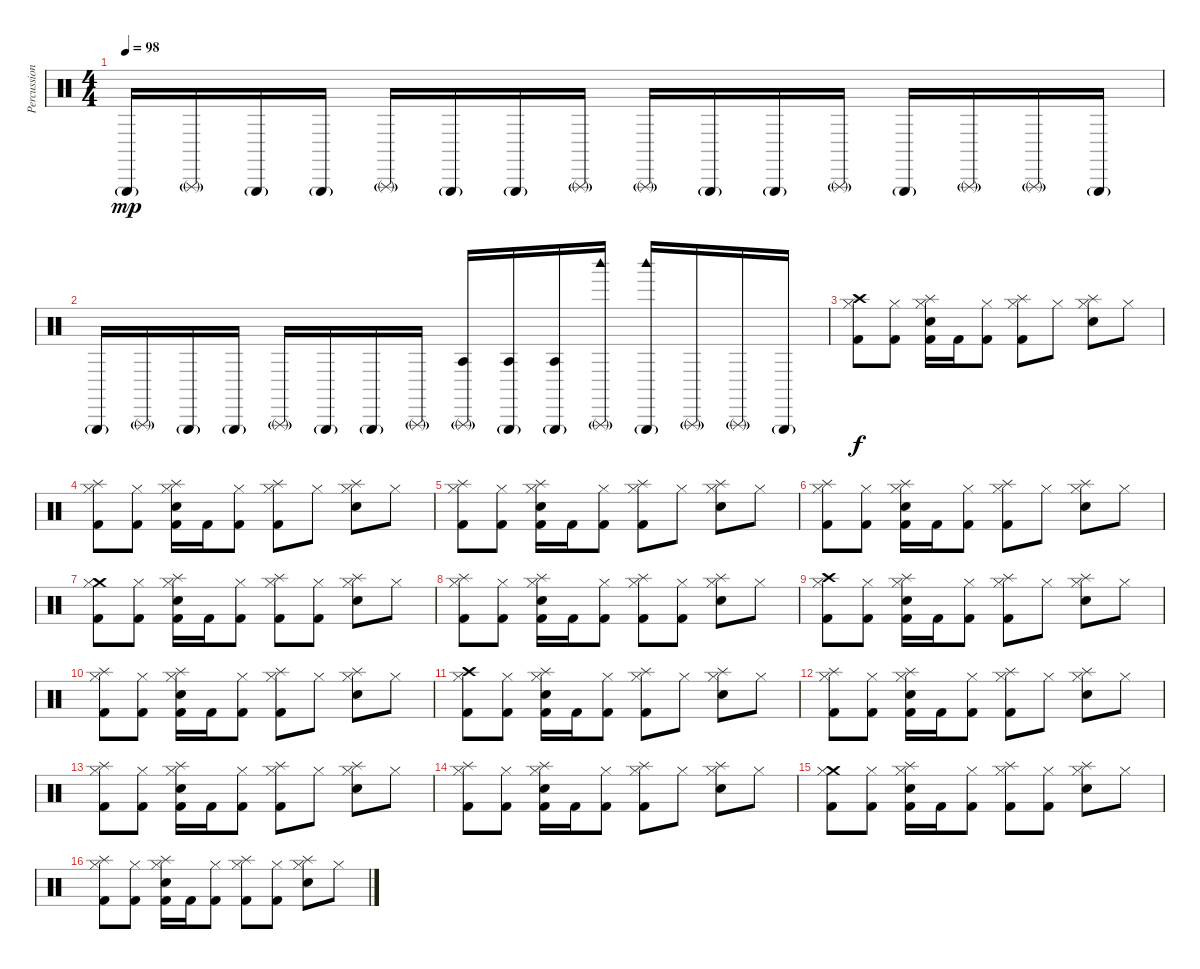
\track ("Percussion" "Percussion") {instrument percussion}
\staff {score}
\articulation defaults
\ts (4 4)
\tempo 98
\clef neutral
\ks c "Triangle (hit)"{g}.16{dy mp} "Triangle (rnute)"{g}.16 "Triangle (hit)"{g}.16 "Triangle (hit)"{g}.16 "Triangle (rnute)"{g}.16 "Triangle (hit)"{g}.16 "Triangle (hit)"{g}.16 "Triangle (rnute)"{g}.16 "Triangle (rnute)"{g}.16 "Triangle (hit)"{g}.16 "Triangle (hit)"{g}.16 "Triangle (rnute)"{g}.16 "Triangle (hit)"{g}.16 "Triangle (rnute)"{g}.16 "Triangle (rnute)"{g}.16 "Triangle (hit)"{g}.16
|
"Triangle (hit)"{g}.16 "Triangle (rnute)"{g}.16 "Triangle (hit)"{g}.16 "Triangle (hit)"{g}.16 "Triangle (rnute)"{g}.16 "Triangle (hit)"{g}.16 "Triangle (hit)"{g}.16 "Triangle (rnute)"{g}.16 ("Triangle (rnute)"{g} "Agogo tow (hit)").16 ("Triangle (hit)"{g} "Agogo tow (hit)").16 ("Triangle (hit)"{g} "Agogo tow (hit)").16 ("Triangle (rnute)"{g} "Woodblock high (hit)").16 ("Triangle (hit)"{g} "Woodblock high (hit)").16 "Triangle (rnute)"{g}.16 "Triangle (rnute)"{g}.16 "Triangle (hit)"{g}.16 |
("Crash high (hit)" "Hi-Hat (closed)" "Kick (hit) 2").8{dy f} ("Hi-Hat (closed)" "Kick (hit) 2").8 ("Splash (hit)" "Hi-Hat (closed)" "Electric Snare (hit)" "Kick (hit) 2").16 "Kick (hit) 2".16 ("Hi-Hat (closed)" "Kick (hit) 2").8 ("Splash (hit)" "Hi-Hat (closed)" "Kick (hit) 2").8 "Hi-Hat (closed)".8 ("Splash (hit)" "Hi-Hat (closed)" "Electric Snare (hit)").8 "Hi-Hat (closed)".8 |
("Splash (hit)" "Hi-Hat (closed)" "Kick (hit) 2").8 ("Hi-Hat (closed)" "Kick (hit) 2").8 ("Splash (hit)" "Hi-Hat (closed)" "Electric Snare (hit)" "Kick (hit) 2").16 "Kick (hit) 2".16 ("Hi-Hat (closed)" "Kick (hit) 2").8 ("Splash (hit)" "Hi-Hat (closed)" "Kick (hit) 2").8 "Hi-Hat (closed)".8 ("Splash (hit)" "Hi-Hat (closed)" "Electric Snare (hit)").8 "Hi-Hat (closed)".8 |
("Splash (hit)" "Hi-Hat (closed)" "Kick (hit) 2").8 ("Hi-Hat (closed)" "Kick (hit) 2").8 ("Splash (hit)" "Hi-Hat (closed)" "Electric Snare (hit)" "Kick (hit) 2").16 "Kick (hit) 2".16 ("Hi-Hat (closed)" "Kick (hit) 2").8 ("Splash (hit)" "Hi-Hat (closed)" "Kick (hit) 2").8 "Hi-Hat (closed)".8 ("Splash (hit)" "Hi-Hat (closed)" "Electric Snare (hit)").8 "Hi-Hat (closed)".8 |
("Splash (hit)" "Hi-Hat (closed)" "Kick (hit) 2").8 ("Hi-Hat (closed)" "Kick (hit) 2").8 ("Splash (hit)" "Hi-Hat (closed)" "Electric Snare (hit)" "Kick (hit) 2").16 "Kick (hit) 2".16 ("Hi-Hat (closed)" "Kick (hit) 2").8 ("Splash (hit)" "Hi-Hat (closed)" "Kick (hit) 2").8 "Hi-Hat (closed)".8 ("Splash (hit)" "Hi-Hat (closed)" "Electric Snare (hit)").8 "Hi-Hat (closed)".8 |
("Crash medium (hit)" "Hi-Hat (closed)" "Kick (hit) 2").8 ("Hi-Hat (closed)" "Kick (hit) 2").8 ("Splash (hit)" "Hi-Hat (closed)" "Electric Snare (hit)" "Kick (hit) 2").16 "Kick (hit) 2".16 ("Hi-Hat (closed)" "Kick (hit) 2").8 ("Splash (hit)" "Hi-Hat (closed)" "Kick (hit) 2").8 ("Hi-Hat (closed)" "Kick (hit) 2").8 ("Splash (hit)" "Hi-Hat (closed)" "Electric Snare (hit)").8 "Hi-Hat (closed)".8 |
("Splash (hit)" "Hi-Hat (closed)" "Kick (hit) 2").8 ("Hi-Hat (closed)" "Kick (hit) 2").8 ("Splash (hit)" "Hi-Hat (closed)" "Electric Snare (hit)" "Kick (hit) 2").16 "Kick (hit) 2".16 ("Hi-Hat (closed)" "Kick (hit) 2").8 ("Splash (hit)" "Hi-Hat (closed)" "Kick (hit) 2").8 ("Hi-Hat (closed)" "Kick (hit) 2").8 ("Splash (hit)" "Hi-Hat (closed)" "Electric Snare (hit)").8 "Hi-Hat (closed)".8 |
("Crash high (hit)" "Hi-Hat (closed)" "Kick (hit) 2").8 ("Hi-Hat (closed)" "Kick (hit) 2").8 ("Splash (hit)" "Hi-Hat (closed)" "Electric Snare (hit)" "Kick (hit) 2").16 "Kick (hit) 2".16 ("Hi-Hat (closed)" "Kick (hit) 2").8 ("Splash (hit)" "Hi-Hat (closed)" "Kick (hit) 2").8 "Hi-Hat (closed)".8 ("Splash (hit)" "Hi-Hat (closed)" "Electric Snare (hit)").8 "Hi-Hat (closed)".8 |
("Splash (hit)" "Hi-Hat (closed)" "Kick (hit) 2").8 ("Hi-Hat (closed)" "Kick (hit) 2").8 ("Splash (hit)" "Hi-Hat (closed)" "Electric Snare (hit)" "Kick (hit) 2").16 "Kick (hit) 2".16 ("Hi-Hat (closed)" "Kick (hit) 2").8 ("Splash (hit)" "Hi-Hat (closed)" "Kick (hit) 2").8 "Hi-Hat (closed)".8 ("Splash (hit)" "Hi-Hat (closed)" "Electric Snare (hit)").8 "Hi-Hat (closed)".8 |
("Crash high (hit)" "Hi-Hat (closed)" "Kick (hit) 2").8 ("Hi-Hat (closed)" "Kick (hit) 2").8 ("Splash (hit)" "Hi-Hat (closed)" "Electric Snare (hit)" "Kick (hit) 2").16 "Kick (hit) 2".16 ("Hi-Hat (closed)" "Kick (hit) 2").8 ("Splash (hit)" "Hi-Hat (closed)" "Kick (hit) 2").8 "Hi-Hat (closed)".8 ("Splash (hit)" "Hi-Hat (closed)" "Electric Snare (hit)").8 "Hi-Hat (closed)".8 |
("Splash (hit)" "Hi-Hat (closed)" "Kick (hit) 2").8 ("Hi-Hat (closed)" "Kick (hit) 2").8 ("Splash (hit)" "Hi-Hat (closed)" "Electric Snare (hit)" "Kick (hit) 2").16 "Kick (hit) 2".16 ("Hi-Hat (closed)" "Kick (hit) 2").8 ("Splash (hit)" "Hi-Hat (closed)" "Kick (hit) 2").8 "Hi-Hat (closed)".8 ("Splash (hit)" "Hi-Hat (closed)" "Electric Snare (hit)").8 "Hi-Hat (closed)".8 |
("Splash (hit)" "Hi-Hat (closed)" "Kick (hit) 2").8 ("Hi-Hat (closed)" "Kick (hit) 2").8 ("Splash (hit)" "Hi-Hat (closed)" "Electric Snare (hit)" "Kick (hit) 2").16 "Kick (hit) 2".16 ("Hi-Hat (closed)" "Kick (hit) 2").8 ("Splash (hit)" "Hi-Hat (closed)" "Kick (hit) 2").8 "Hi-Hat (closed)".8 ("Splash (hit)" "Hi-Hat (closed)" "Electric Snare (hit)").8 "Hi-Hat (closed)".8 |
("Splash (hit)" "Hi-Hat (closed)" "Kick (hit) 2").8 ("Hi-Hat (closed)" "Kick (hit) 2").8 ("Splash (hit)" "Hi-Hat (closed)" "Electric Snare (hit)" "Kick (hit) 2").16 "Kick (hit) 2".16 ("Hi-Hat (closed)" "Kick (hit) 2").8 ("Splash (hit)" "Hi-Hat (closed)" "Kick (hit) 2").8 "Hi-Hat (closed)".8 ("Splash (hit)" "Hi-Hat (closed)" "Electric Snare (hit)").8 "Hi-Hat (closed)".8 |
("Crash medium (hit)" "Hi-Hat (closed)" "Kick (hit) 2").8 ("Hi-Hat (closed)" "Kick (hit) 2").8 ("Splash (hit)" "Hi-Hat (closed)" "Electric Snare (hit)" "Kick (hit) 2").16 "Kick (hit) 2".16 ("Hi-Hat (closed)" "Kick (hit) 2").8 ("Splash (hit)" "Hi-Hat (closed)" "Kick (hit) 2").8 ("Hi-Hat (closed)" "Kick (hit) 2").8 ("Splash (hit)" "Hi-Hat (closed)" "Electric Snare (hit)").8 "Hi-Hat (closed)".8 |
("Splash (hit)" "Hi-Hat (closed)" "Kick (hit) 2").8 ("Hi-Hat (closed)" "Kick (hit) 2").8 ("Splash (hit)" "Hi-Hat (closed)" "Electric Snare (hit)" "Kick (hit) 2").16 "Kick (hit) 2".16 ("Hi-Hat (closed)" "Kick (hit) 2").8 ("Splash (hit)" "Hi-Hat (closed)" "Kick (hit) 2").8 ("Hi-Hat (closed)" "Kick (hit) 2").8 ("Splash (hit)" "Hi-Hat (closed)" "Electric Snare (hit)").8 "Hi-Hat (closed)".8
